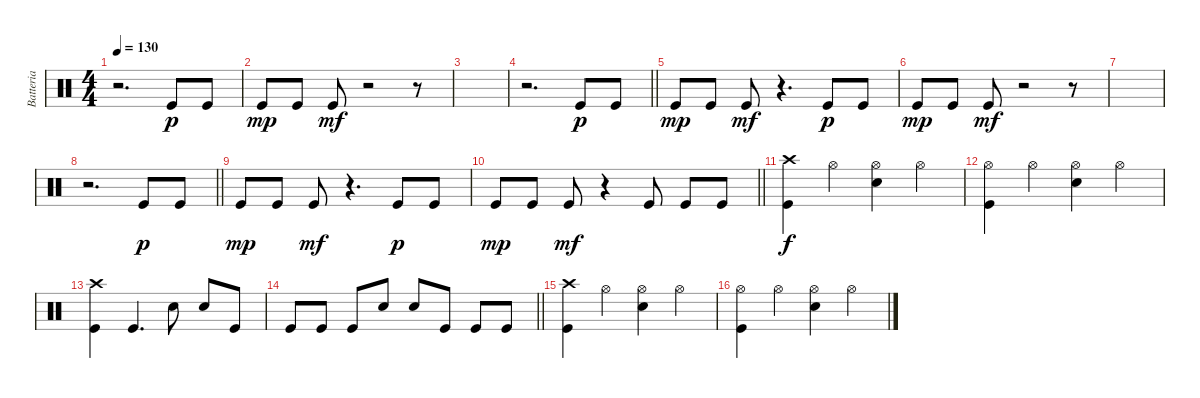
\track ("Batteria" "Batteria") {instrument percussion}
\staff {score}
\articulation defaults
\ts (4 4)
\tempo 130
\clef neutral
\ks c
r.2{d dy p} "Kick (hit)".8 "Kick (hit)".8 |
"Kick (hit)".8{dy mp} "Kick (hit)".8 "Kick (hit)".8{dy mf} r.2 r.8 |
|
\barLineRight lightlight
r.2{d} "Kick (hit)".8{dy p} "Kick (hit)".8 |
"Kick (hit)".8{dy mp} "Kick (hit)".8 "Kick (hit)".8{dy mf} r.4{d} "Kick (hit)".8{dy p} "Kick (hit)".8 |
"Kick (hit)".8{dy mp} "Kick (hit)".8 "Kick (hit)".8{dy mf} r.2 r.8 |
|
\barLineRight lightlight
r.2{d} "Kick (hit)".8{dy p} "Kick (hit)".8 |
"Kick (hit)".8{dy mp} "Kick (hit)".8 "Kick (hit)".8{dy mf} r.4{d} "Kick (hit)".8{dy p} "Kick (hit)".8 |
\barLineRight lightlight "Kick (hit)".8{dy mp} "Kick (hit)".8 "Kick (hit)".8{dy mf}
r.4 "Kick (hit)".8 "Kick (hit)".8 "Kick (hit)".8 |
("Kick (hit)" "Crash high (hit)").4{dy f} "Hi-Hat (open)".4 ("Snare (hit) 2" "Hi-Hat (open)").4 "Hi-Hat (open)".4 |
("Kick (hit)" "Hi-Hat (open)").4 "Hi-Hat (open)".4 ("Snare (hit) 2" "Hi-Hat (open)").4 "Hi-Hat (open)".4 |
("Kick (hit)" "Crash high (hit)").4 "Kick (hit)".4{d} "Snare (hit) 2".8 "Snare (hit) 2".8 "Kick (hit)".8 |
\barLineRight lightlight "Kick (hit)".8 "Kick (hit)".8 "Kick (hit)".8 "Snare (hit) 2".8 "Snare (hit) 2".8 "Kick (hit)".8 "Kick (hit)".8 "Kick (hit)".8
|
("Kick (hit)" "Crash high (hit)").4 "Hi-Hat (open)".4 ("Snare (hit) 2" "Hi-Hat (open)").4 "Hi-Hat (open)".4 |
("Kick (hit)" "Hi-Hat (open)").4 "Hi-Hat (open)".4 ("Snare (hit) 2" "Hi-Hat (open)").4 "Hi-Hat (open)".4
